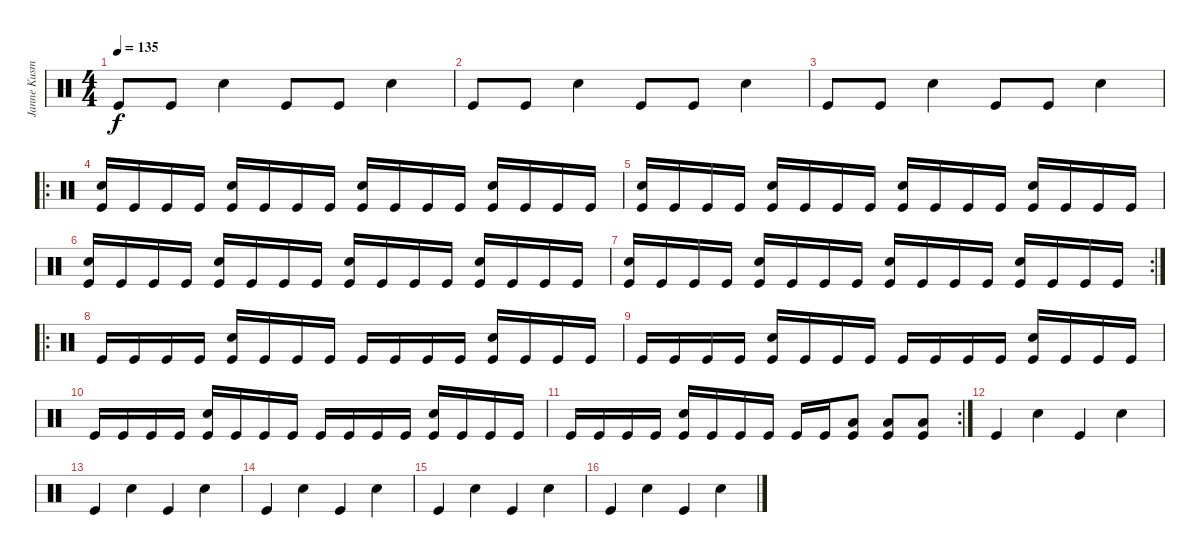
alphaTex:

\track ("Janne Kusmin" "Janne Kusm") {instrument percussion}
\staff {score}
\articulation defaults
\ts (4 4)
\tempo 135
\clef neutral
\ks c "Kick (hit)".8{dy f} "Kick (hit)".8 "Snare (hit) 2".4 "Kick (hit)".8 "Kick (hit)".8 "Snare (hit) 2".4
|
"Kick (hit)".8 "Kick (hit)".8 "Snare (hit) 2".4 "Kick (hit)".8 "Kick (hit)".8 "Snare (hit) 2".4 |
"Kick (hit)".8 "Kick (hit)".8 "Snare (hit) 2".4 "Kick (hit)".8 "Kick (hit)".8 "Snare (hit) 2".4 |
\ro
("Snare (hit) 2" "Kick (hit)").16 "Kick (hit)".16 "Kick (hit)".16 "Kick (hit)".16 ("Snare (hit) 2" "Kick (hit)").16 "Kick (hit)".16 "Kick (hit)".16 "Kick (hit)".16 ("Snare (hit) 2" "Kick (hit)").16 "Kick (hit)".16 "Kick (hit)".16 "Kick (hit)".16 ("Snare (hit) 2" "Kick (hit)").16 "Kick (hit)".16 "Kick (hit)".16 "Kick (hit)".16 |
("Snare (hit) 2" "Kick (hit)").16 "Kick (hit)".16 "Kick (hit)".16 "Kick (hit)".16 ("Snare (hit) 2" "Kick (hit)").16 "Kick (hit)".16 "Kick (hit)".16 "Kick (hit)".16 ("Snare (hit) 2" "Kick (hit)").16 "Kick (hit)".16 "Kick (hit)".16 "Kick (hit)".16 ("Snare (hit) 2" "Kick (hit)").16 "Kick (hit)".16 "Kick (hit)".16 "Kick (hit)".16 |
("Snare (hit) 2" "Kick (hit)").16 "Kick (hit)".16 "Kick (hit)".16 "Kick (hit)".16 ("Snare (hit) 2" "Kick (hit)").16 "Kick (hit)".16 "Kick (hit)".16 "Kick (hit)".16 ("Snare (hit) 2" "Kick (hit)").16 "Kick (hit)".16 "Kick (hit)".16 "Kick (hit)".16 ("Snare (hit) 2" "Kick (hit)").16 "Kick (hit)".16 "Kick (hit)".16 "Kick (hit)".16 |
\rc 2
("Snare (hit) 2" "Kick (hit)").16 "Kick (hit)".16 "Kick (hit)".16 "Kick (hit)".16 ("Snare (hit) 2" "Kick (hit)").16 "Kick (hit)".16 "Kick (hit)".16 "Kick (hit)".16 ("Snare (hit) 2" "Kick (hit)").16 "Kick (hit)".16 "Kick (hit)".16 "Kick (hit)".16 ("Snare (hit) 2" "Kick (hit)").16 "Kick (hit)".16 "Kick (hit)".16 "Kick (hit)".16 |
\ro "Kick (hit)".16 "Kick (hit)".16 "Kick (hit)".16 "Kick (hit)".16
("Snare (hit) 2" "Kick (hit)").16 "Kick (hit)".16 "Kick (hit)".16 "Kick (hit)".16 "Kick (hit)".16 "Kick (hit)".16 "Kick (hit)".16 "Kick (hit)".16 ("Snare (hit) 2" "Kick (hit)").16 "Kick (hit)".16 "Kick (hit)".16 "Kick (hit)".16 |
"Kick (hit)".16 "Kick (hit)".16 "Kick (hit)".16 "Kick (hit)".16 ("Snare (hit) 2" "Kick (hit)").16 "Kick (hit)".16 "Kick (hit)".16 "Kick (hit)".16 "Kick (hit)".16 "Kick (hit)".16 "Kick (hit)".16 "Kick (hit)".16 ("Snare (hit) 2" "Kick (hit)").16 "Kick (hit)".16 "Kick (hit)".16 "Kick (hit)".16 |
"Kick (hit)".16 "Kick (hit)".16 "Kick (hit)".16 "Kick (hit)".16 ("Snare (hit) 2" "Kick (hit)").16 "Kick (hit)".16 "Kick (hit)".16 "Kick (hit)".16 "Kick (hit)".16 "Kick (hit)".16 "Kick (hit)".16 "Kick (hit)".16 ("Snare (hit) 2" "Kick (hit)").16 "Kick (hit)".16 "Kick (hit)".16 "Kick (hit)".16 |
\rc 2 "Kick (hit)".16 "Kick (hit)".16 "Kick (hit)".16 "Kick (hit)".16
("Snare (hit) 2" "Kick (hit)").16 "Kick (hit)".16 "Kick (hit)".16 "Kick (hit)".16 "Kick (hit)".16 "Kick (hit)".16 ("Low Tom (hit)" "Kick (hit)").8 ("Low Tom (hit)" "Kick (hit)").8 ("Low Tom (hit)" "Kick (hit)").8 |
"Kick (hit)".4 "Electric Snare (hit)".4 "Kick (hit)".4 "Electric Snare (hit)".4 |
"Kick (hit)".4 "Electric Snare (hit)".4 "Kick (hit)".4 "Electric Snare (hit)".4 |
"Kick (hit)".4 "Electric Snare (hit)".4 "Kick (hit)".4 "Electric Snare (hit)".4 |
"Kick (hit)".4 "Electric Snare (hit)".4 "Kick (hit)".4 "Electric Snare (hit)".4 |
"Kick (hit)".4 "Electric Snare (hit)".4 "Kick (hit)".4 "Electric Snare (hit)".4
